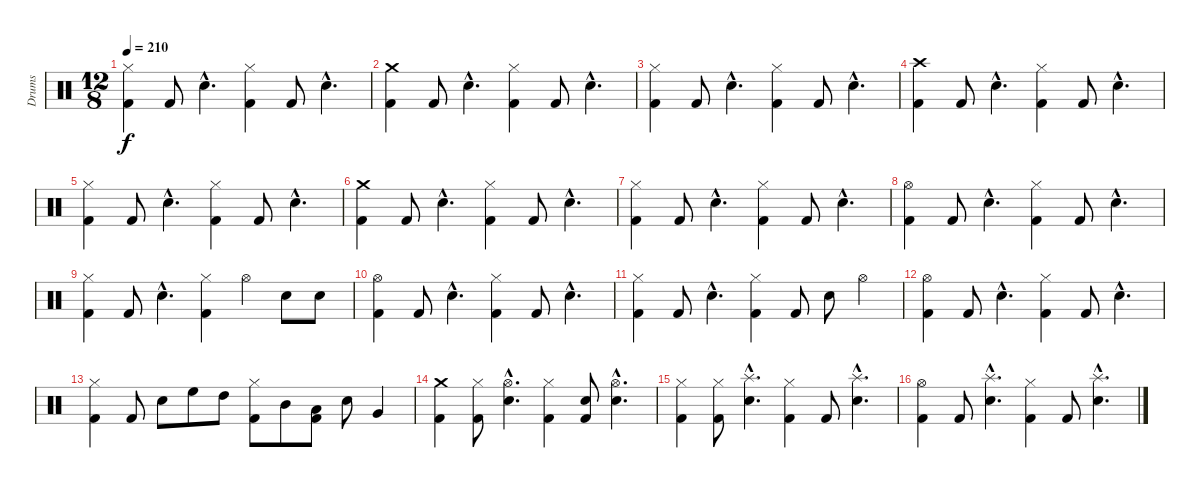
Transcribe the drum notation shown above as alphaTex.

\track ("Drums" "Drums") {instrument percussion}
\staff {score}
\articulation defaults
\ts (12 8)
\tempo 210
\clef neutral
\ks c
("Kick (hit) 2" "Hi-Hat (closed)").4{dy f} "Kick (hit) 2".8 "Snare (hit) 2"{hac}.4{d} ("Kick (hit) 2" "Hi-Hat (closed)").4 "Kick (hit) 2".8 "Snare (hit) 2"{hac}.4{d} |
("Kick (hit) 2" "Crash medium (hit)").4 "Kick (hit) 2".8 "Snare (hit) 2"{hac}.4{d} ("Kick (hit) 2" "Hi-Hat (closed)").4 "Kick (hit) 2".8 "Snare (hit) 2"{hac}.4{d} |
("Kick (hit) 2" "Hi-Hat (closed)").4 "Kick (hit) 2".8 "Snare (hit) 2"{hac}.4{d} ("Kick (hit) 2" "Hi-Hat (closed)").4 "Kick (hit) 2".8 "Snare (hit) 2"{hac}.4{d} |
("Kick (hit) 2" "Crash high (hit)").4 "Kick (hit) 2".8 "Snare (hit) 2"{hac}.4{d} ("Kick (hit) 2" "Hi-Hat (closed)").4 "Kick (hit) 2".8 "Snare (hit) 2"{hac}.4{d} |
("Kick (hit) 2" "Hi-Hat (closed)").4 "Kick (hit) 2".8 "Snare (hit) 2"{hac}.4{d} ("Kick (hit) 2" "Hi-Hat (closed)").4 "Kick (hit) 2".8 "Snare (hit) 2"{hac}.4{d} |
("Kick (hit) 2" "Crash medium (hit)").4 "Kick (hit) 2".8 "Snare (hit) 2"{hac}.4{d} ("Kick (hit) 2" "Hi-Hat (closed)").4 "Kick (hit) 2".8 "Snare (hit) 2"{hac}.4{d} |
("Kick (hit) 2" "Hi-Hat (closed)").4 "Kick (hit) 2".8 "Snare (hit) 2"{hac}.4{d} ("Kick (hit) 2" "Hi-Hat (closed)").4 "Kick (hit) 2".8 "Snare (hit) 2"{hac}.4{d} |
("Kick (hit) 2" "Hi-Hat (open)").4 "Kick (hit) 2".8 "Snare (hit) 2"{hac}.4{d} ("Kick (hit) 2" "Hi-Hat (closed)").4 "Kick (hit) 2".8 "Snare (hit) 2"{hac}.4{d} |
("Kick (hit) 2" "Hi-Hat (closed)").4 "Kick (hit) 2".8 "Snare (hit) 2"{hac}.4{d} ("Kick (hit) 2" "Hi-Hat (closed)").4 "Hi-Hat (open)".4 "Snare (hit) 2".8 "Snare (hit) 2".8 |
("Kick (hit) 2" "Hi-Hat (open)").4 "Kick (hit) 2".8 "Snare (hit) 2"{hac}.4{d} ("Kick (hit) 2" "Hi-Hat (closed)").4 "Kick (hit) 2".8 "Snare (hit) 2"{hac}.4{d} |
("Kick (hit) 2" "Hi-Hat (closed)").4 "Kick (hit) 2".8 "Snare (hit) 2"{hac}.4{d} ("Kick (hit) 2" "Hi-Hat (closed)").4 "Kick (hit) 2".8 "Snare (hit) 2".8 "Hi-Hat (open)".4 |
("Kick (hit) 2" "Hi-Hat (open)").4 "Kick (hit) 2".8 "Snare (hit) 2"{hac}.4{d} ("Kick (hit) 2" "Hi-Hat (closed)").4 "Kick (hit) 2".8 "Snare (hit) 2"{hac}.4{d} |
("Kick (hit) 2" "Hi-Hat (closed)").4 "Kick (hit) 2".8 "Snare (hit) 2".8 "High Floor Tom (hit)".8 "High Tom (hit)".8 ("Kick (hit) 2" "Hi-Hat (closed)").8 "Mid Tom (hit)".8 ("Kick (hit) 2" "Low Tom (hit)").8 "Snare (hit) 2".8 "Very Low Tom (hit)".4 |
("Kick (hit) 2" "Crash medium (hit)").4 ("Kick (hit) 2" "Hi-Hat (closed)").8 ("Snare (hit) 2"{hac} "Hi-Hat (open)"{hac}).4{d} ("Kick (hit) 2" "Hi-Hat (closed)").4 ("Kick (hit) 2" "Snare (hit)").8 ("Snare (hit) 2"{hac} "Hi-Hat (open)"{hac}).4{d} |
("Kick (hit) 2" "Hi-Hat (closed)").4 ("Kick (hit) 2" "Hi-Hat (closed)").8 ("Snare (hit) 2"{hac} "Splash (hit)"{hac}).4{d} ("Kick (hit) 2" "Hi-Hat (closed)").4 "Kick (hit) 2".8 ("Snare (hit) 2"{hac} "Splash (hit)"{hac}).4{d} |
("Kick (hit) 2" "Hi-Hat (open)").4 "Kick (hit) 2".8 ("Snare (hit) 2"{hac} "Splash (hit)"{hac}).4{d} ("Kick (hit) 2" "Hi-Hat (closed)").4 "Kick (hit) 2".8 ("Snare (hit) 2"{hac} "Splash (hit)"{hac}).4{d}
